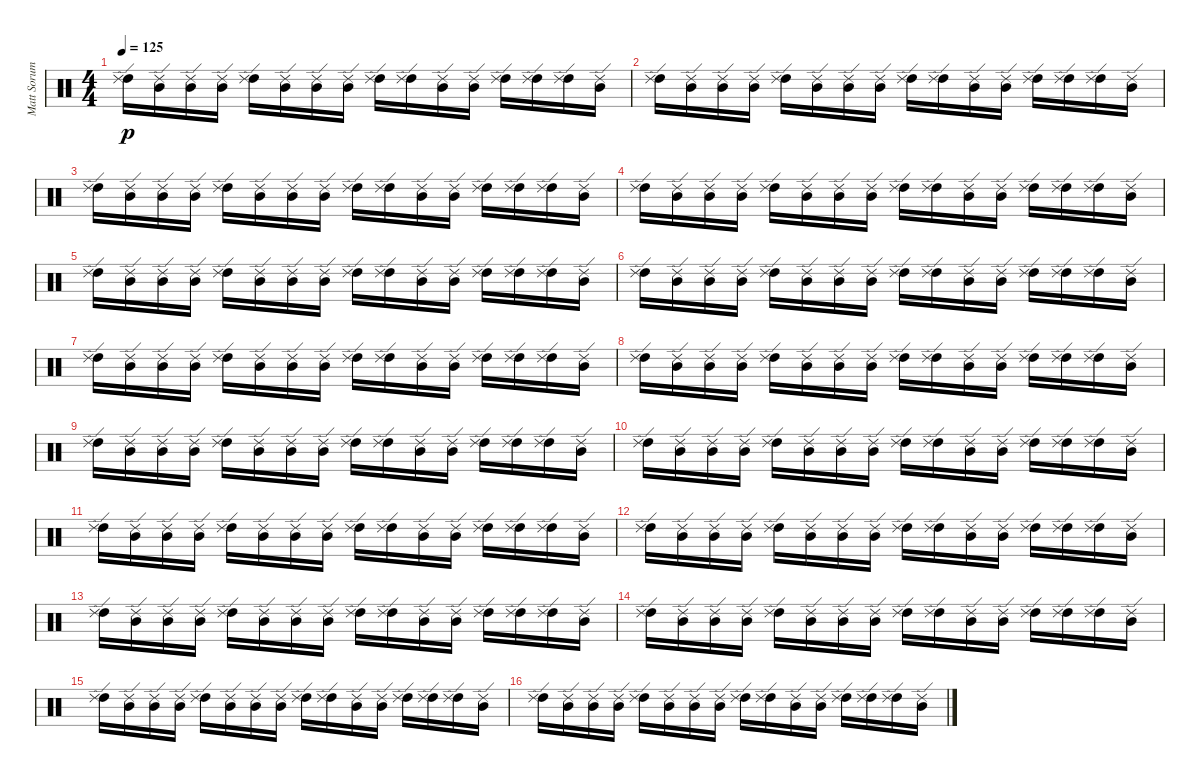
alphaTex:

\track ("Matt Sorum" "Matt Sorum") {instrument percussion}
\staff {score}
\articulation defaults
\ts (4 4)
\tempo 125
\clef neutral
\ks c
("High Tom (hit)" "Ride (edge) 2").16{dy p} ("Mid Tom (hit)" "Ride (edge) 2").16 ("Mid Tom (hit)" "Ride (edge) 2").16 ("Mid Tom (hit)" "Ride (edge) 2").16 ("High Tom (hit)" "Ride (edge) 2").16 ("Mid Tom (hit)" "Ride (edge) 2").16 ("Mid Tom (hit)" "Ride (edge) 2").16 ("Mid Tom (hit)" "Ride (edge) 2").16 ("High Tom (hit)" "Ride (edge) 2").16 ("High Tom (hit)" "Ride (edge) 2").16 ("Mid Tom (hit)" "Ride (edge) 2").16 ("Mid Tom (hit)" "Ride (edge) 2").16 ("High Tom (hit)" "Ride (edge) 2").16 ("High Tom (hit)" "Ride (edge) 2").16 ("High Tom (hit)" "Ride (edge) 2").16 ("Mid Tom (hit)" "Ride (edge) 2").16 |
("High Tom (hit)" "Ride (edge) 2").16 ("Mid Tom (hit)" "Ride (edge) 2").16 ("Mid Tom (hit)" "Ride (edge) 2").16 ("Mid Tom (hit)" "Ride (edge) 2").16 ("High Tom (hit)" "Ride (edge) 2").16 ("Mid Tom (hit)" "Ride (edge) 2").16 ("Mid Tom (hit)" "Ride (edge) 2").16 ("Mid Tom (hit)" "Ride (edge) 2").16 ("High Tom (hit)" "Ride (edge) 2").16 ("High Tom (hit)" "Ride (edge) 2").16 ("Mid Tom (hit)" "Ride (edge) 2").16 ("Mid Tom (hit)" "Ride (edge) 2").16 ("High Tom (hit)" "Ride (edge) 2").16 ("High Tom (hit)" "Ride (edge) 2").16 ("High Tom (hit)" "Ride (edge) 2").16 ("Mid Tom (hit)" "Ride (edge) 2").16 |
("High Tom (hit)" "Ride (edge) 2").16 ("Mid Tom (hit)" "Ride (edge) 2").16 ("Mid Tom (hit)" "Ride (edge) 2").16 ("Mid Tom (hit)" "Ride (edge) 2").16 ("High Tom (hit)" "Ride (edge) 2").16 ("Mid Tom (hit)" "Ride (edge) 2").16 ("Mid Tom (hit)" "Ride (edge) 2").16 ("Mid Tom (hit)" "Ride (edge) 2").16 ("High Tom (hit)" "Ride (edge) 2").16 ("High Tom (hit)" "Ride (edge) 2").16 ("Mid Tom (hit)" "Ride (edge) 2").16 ("Mid Tom (hit)" "Ride (edge) 2").16 ("High Tom (hit)" "Ride (edge) 2").16 ("High Tom (hit)" "Ride (edge) 2").16 ("High Tom (hit)" "Ride (edge) 2").16 ("Mid Tom (hit)" "Ride (edge) 2").16 |
("High Tom (hit)" "Ride (edge) 2").16 ("Mid Tom (hit)" "Ride (edge) 2").16 ("Mid Tom (hit)" "Ride (edge) 2").16 ("Mid Tom (hit)" "Ride (edge) 2").16 ("High Tom (hit)" "Ride (edge) 2").16 ("Mid Tom (hit)" "Ride (edge) 2").16 ("Mid Tom (hit)" "Ride (edge) 2").16 ("Mid Tom (hit)" "Ride (edge) 2").16 ("High Tom (hit)" "Ride (edge) 2").16 ("High Tom (hit)" "Ride (edge) 2").16 ("Mid Tom (hit)" "Ride (edge) 2").16 ("Mid Tom (hit)" "Ride (edge) 2").16 ("High Tom (hit)" "Ride (edge) 2").16 ("High Tom (hit)" "Ride (edge) 2").16 ("High Tom (hit)" "Ride (edge) 2").16 ("Mid Tom (hit)" "Ride (edge) 2").16 |
("High Tom (hit)" "Ride (edge) 2").16 ("Mid Tom (hit)" "Ride (edge) 2").16 ("Mid Tom (hit)" "Ride (edge) 2").16 ("Mid Tom (hit)" "Ride (edge) 2").16 ("High Tom (hit)" "Ride (edge) 2").16 ("Mid Tom (hit)" "Ride (edge) 2").16 ("Mid Tom (hit)" "Ride (edge) 2").16 ("Mid Tom (hit)" "Ride (edge) 2").16 ("High Tom (hit)" "Ride (edge) 2").16 ("High Tom (hit)" "Ride (edge) 2").16 ("Mid Tom (hit)" "Ride (edge) 2").16 ("Mid Tom (hit)" "Ride (edge) 2").16 ("High Tom (hit)" "Ride (edge) 2").16 ("High Tom (hit)" "Ride (edge) 2").16 ("High Tom (hit)" "Ride (edge) 2").16 ("Mid Tom (hit)" "Ride (edge) 2").16 |
("High Tom (hit)" "Ride (edge) 2").16 ("Mid Tom (hit)" "Ride (edge) 2").16 ("Mid Tom (hit)" "Ride (edge) 2").16 ("Mid Tom (hit)" "Ride (edge) 2").16 ("High Tom (hit)" "Ride (edge) 2").16 ("Mid Tom (hit)" "Ride (edge) 2").16 ("Mid Tom (hit)" "Ride (edge) 2").16 ("Mid Tom (hit)" "Ride (edge) 2").16 ("High Tom (hit)" "Ride (edge) 2").16 ("High Tom (hit)" "Ride (edge) 2").16 ("Mid Tom (hit)" "Ride (edge) 2").16 ("Mid Tom (hit)" "Ride (edge) 2").16 ("High Tom (hit)" "Ride (edge) 2").16 ("High Tom (hit)" "Ride (edge) 2").16 ("High Tom (hit)" "Ride (edge) 2").16 ("Mid Tom (hit)" "Ride (edge) 2").16 |
("High Tom (hit)" "Ride (edge) 2").16 ("Mid Tom (hit)" "Ride (edge) 2").16 ("Mid Tom (hit)" "Ride (edge) 2").16 ("Mid Tom (hit)" "Ride (edge) 2").16 ("High Tom (hit)" "Ride (edge) 2").16 ("Mid Tom (hit)" "Ride (edge) 2").16 ("Mid Tom (hit)" "Ride (edge) 2").16 ("Mid Tom (hit)" "Ride (edge) 2").16 ("High Tom (hit)" "Ride (edge) 2").16 ("High Tom (hit)" "Ride (edge) 2").16 ("Mid Tom (hit)" "Ride (edge) 2").16 ("Mid Tom (hit)" "Ride (edge) 2").16 ("High Tom (hit)" "Ride (edge) 2").16 ("High Tom (hit)" "Ride (edge) 2").16 ("High Tom (hit)" "Ride (edge) 2").16 ("Mid Tom (hit)" "Ride (edge) 2").16 |
("High Tom (hit)" "Ride (edge) 2").16 ("Mid Tom (hit)" "Ride (edge) 2").16 ("Mid Tom (hit)" "Ride (edge) 2").16 ("Mid Tom (hit)" "Ride (edge) 2").16 ("High Tom (hit)" "Ride (edge) 2").16 ("Mid Tom (hit)" "Ride (edge) 2").16 ("Mid Tom (hit)" "Ride (edge) 2").16 ("Mid Tom (hit)" "Ride (edge) 2").16 ("High Tom (hit)" "Ride (edge) 2").16 ("High Tom (hit)" "Ride (edge) 2").16 ("Mid Tom (hit)" "Ride (edge) 2").16 ("Mid Tom (hit)" "Ride (edge) 2").16 ("High Tom (hit)" "Ride (edge) 2").16 ("High Tom (hit)" "Ride (edge) 2").16 ("High Tom (hit)" "Ride (edge) 2").16 ("Mid Tom (hit)" "Ride (edge) 2").16 |
("High Tom (hit)" "Ride (edge) 2").16 ("Mid Tom (hit)" "Ride (edge) 2").16 ("Mid Tom (hit)" "Ride (edge) 2").16 ("Mid Tom (hit)" "Ride (edge) 2").16 ("High Tom (hit)" "Ride (edge) 2").16 ("Mid Tom (hit)" "Ride (edge) 2").16 ("Mid Tom (hit)" "Ride (edge) 2").16 ("Mid Tom (hit)" "Ride (edge) 2").16 ("High Tom (hit)" "Ride (edge) 2").16 ("High Tom (hit)" "Ride (edge) 2").16 ("Mid Tom (hit)" "Ride (edge) 2").16 ("Mid Tom (hit)" "Ride (edge) 2").16 ("High Tom (hit)" "Ride (edge) 2").16 ("High Tom (hit)" "Ride (edge) 2").16 ("High Tom (hit)" "Ride (edge) 2").16 ("Mid Tom (hit)" "Ride (edge) 2").16 |
("High Tom (hit)" "Ride (edge) 2").16 ("Mid Tom (hit)" "Ride (edge) 2").16 ("Mid Tom (hit)" "Ride (edge) 2").16 ("Mid Tom (hit)" "Ride (edge) 2").16 ("High Tom (hit)" "Ride (edge) 2").16 ("Mid Tom (hit)" "Ride (edge) 2").16 ("Mid Tom (hit)" "Ride (edge) 2").16 ("Mid Tom (hit)" "Ride (edge) 2").16 ("High Tom (hit)" "Ride (edge) 2").16 ("High Tom (hit)" "Ride (edge) 2").16 ("Mid Tom (hit)" "Ride (edge) 2").16 ("Mid Tom (hit)" "Ride (edge) 2").16 ("High Tom (hit)" "Ride (edge) 2").16 ("High Tom (hit)" "Ride (edge) 2").16 ("High Tom (hit)" "Ride (edge) 2").16 ("Mid Tom (hit)" "Ride (edge) 2").16 |
("High Tom (hit)" "Ride (edge) 2").16 ("Mid Tom (hit)" "Ride (edge) 2").16 ("Mid Tom (hit)" "Ride (edge) 2").16 ("Mid Tom (hit)" "Ride (edge) 2").16 ("High Tom (hit)" "Ride (edge) 2").16 ("Mid Tom (hit)" "Ride (edge) 2").16 ("Mid Tom (hit)" "Ride (edge) 2").16 ("Mid Tom (hit)" "Ride (edge) 2").16 ("High Tom (hit)" "Ride (edge) 2").16 ("High Tom (hit)" "Ride (edge) 2").16 ("Mid Tom (hit)" "Ride (edge) 2").16 ("Mid Tom (hit)" "Ride (edge) 2").16 ("High Tom (hit)" "Ride (edge) 2").16 ("High Tom (hit)" "Ride (edge) 2").16 ("High Tom (hit)" "Ride (edge) 2").16 ("Mid Tom (hit)" "Ride (edge) 2").16 |
("High Tom (hit)" "Ride (edge) 2").16 ("Mid Tom (hit)" "Ride (edge) 2").16 ("Mid Tom (hit)" "Ride (edge) 2").16 ("Mid Tom (hit)" "Ride (edge) 2").16 ("High Tom (hit)" "Ride (edge) 2").16 ("Mid Tom (hit)" "Ride (edge) 2").16 ("Mid Tom (hit)" "Ride (edge) 2").16 ("Mid Tom (hit)" "Ride (edge) 2").16 ("High Tom (hit)" "Ride (edge) 2").16 ("High Tom (hit)" "Ride (edge) 2").16 ("Mid Tom (hit)" "Ride (edge) 2").16 ("Mid Tom (hit)" "Ride (edge) 2").16 ("High Tom (hit)" "Ride (edge) 2").16 ("High Tom (hit)" "Ride (edge) 2").16 ("High Tom (hit)" "Ride (edge) 2").16 ("Mid Tom (hit)" "Ride (edge) 2").16 |
("High Tom (hit)" "Ride (edge) 2").16 ("Mid Tom (hit)" "Ride (edge) 2").16 ("Mid Tom (hit)" "Ride (edge) 2").16 ("Mid Tom (hit)" "Ride (edge) 2").16 ("High Tom (hit)" "Ride (edge) 2").16 ("Mid Tom (hit)" "Ride (edge) 2").16 ("Mid Tom (hit)" "Ride (edge) 2").16 ("Mid Tom (hit)" "Ride (edge) 2").16 ("High Tom (hit)" "Ride (edge) 2").16 ("High Tom (hit)" "Ride (edge) 2").16 ("Mid Tom (hit)" "Ride (edge) 2").16 ("Mid Tom (hit)" "Ride (edge) 2").16 ("High Tom (hit)" "Ride (edge) 2").16 ("High Tom (hit)" "Ride (edge) 2").16 ("High Tom (hit)" "Ride (edge) 2").16 ("Mid Tom (hit)" "Ride (edge) 2").16 |
("High Tom (hit)" "Ride (edge) 2").16 ("Mid Tom (hit)" "Ride (edge) 2").16 ("Mid Tom (hit)" "Ride (edge) 2").16 ("Mid Tom (hit)" "Ride (edge) 2").16 ("High Tom (hit)" "Ride (edge) 2").16 ("Mid Tom (hit)" "Ride (edge) 2").16 ("Mid Tom (hit)" "Ride (edge) 2").16 ("Mid Tom (hit)" "Ride (edge) 2").16 ("High Tom (hit)" "Ride (edge) 2").16 ("High Tom (hit)" "Ride (edge) 2").16 ("Mid Tom (hit)" "Ride (edge) 2").16 ("Mid Tom (hit)" "Ride (edge) 2").16 ("High Tom (hit)" "Ride (edge) 2").16 ("High Tom (hit)" "Ride (edge) 2").16 ("High Tom (hit)" "Ride (edge) 2").16 ("Mid Tom (hit)" "Ride (edge) 2").16 |
("High Tom (hit)" "Ride (edge) 2").16 ("Mid Tom (hit)" "Ride (edge) 2").16 ("Mid Tom (hit)" "Ride (edge) 2").16 ("Mid Tom (hit)" "Ride (edge) 2").16 ("High Tom (hit)" "Ride (edge) 2").16 ("Mid Tom (hit)" "Ride (edge) 2").16 ("Mid Tom (hit)" "Ride (edge) 2").16 ("Mid Tom (hit)" "Ride (edge) 2").16 ("High Tom (hit)" "Ride (edge) 2").16 ("High Tom (hit)" "Ride (edge) 2").16 ("Mid Tom (hit)" "Ride (edge) 2").16 ("Mid Tom (hit)" "Ride (edge) 2").16 ("High Tom (hit)" "Ride (edge) 2").16 ("High Tom (hit)" "Ride (edge) 2").16 ("High Tom (hit)" "Ride (edge) 2").16 ("Mid Tom (hit)" "Ride (edge) 2").16 |
("High Tom (hit)" "Ride (edge) 2").16 ("Mid Tom (hit)" "Ride (edge) 2").16 ("Mid Tom (hit)" "Ride (edge) 2").16 ("Mid Tom (hit)" "Ride (edge) 2").16 ("High Tom (hit)" "Ride (edge) 2").16 ("Mid Tom (hit)" "Ride (edge) 2").16 ("Mid Tom (hit)" "Ride (edge) 2").16 ("Mid Tom (hit)" "Ride (edge) 2").16 ("High Tom (hit)" "Ride (edge) 2").16 ("High Tom (hit)" "Ride (edge) 2").16 ("Mid Tom (hit)" "Ride (edge) 2").16 ("Mid Tom (hit)" "Ride (edge) 2").16 ("High Tom (hit)" "Ride (edge) 2").16 ("High Tom (hit)" "Ride (edge) 2").16 ("High Tom (hit)" "Ride (edge) 2").16 ("Mid Tom (hit)" "Ride (edge) 2").16
